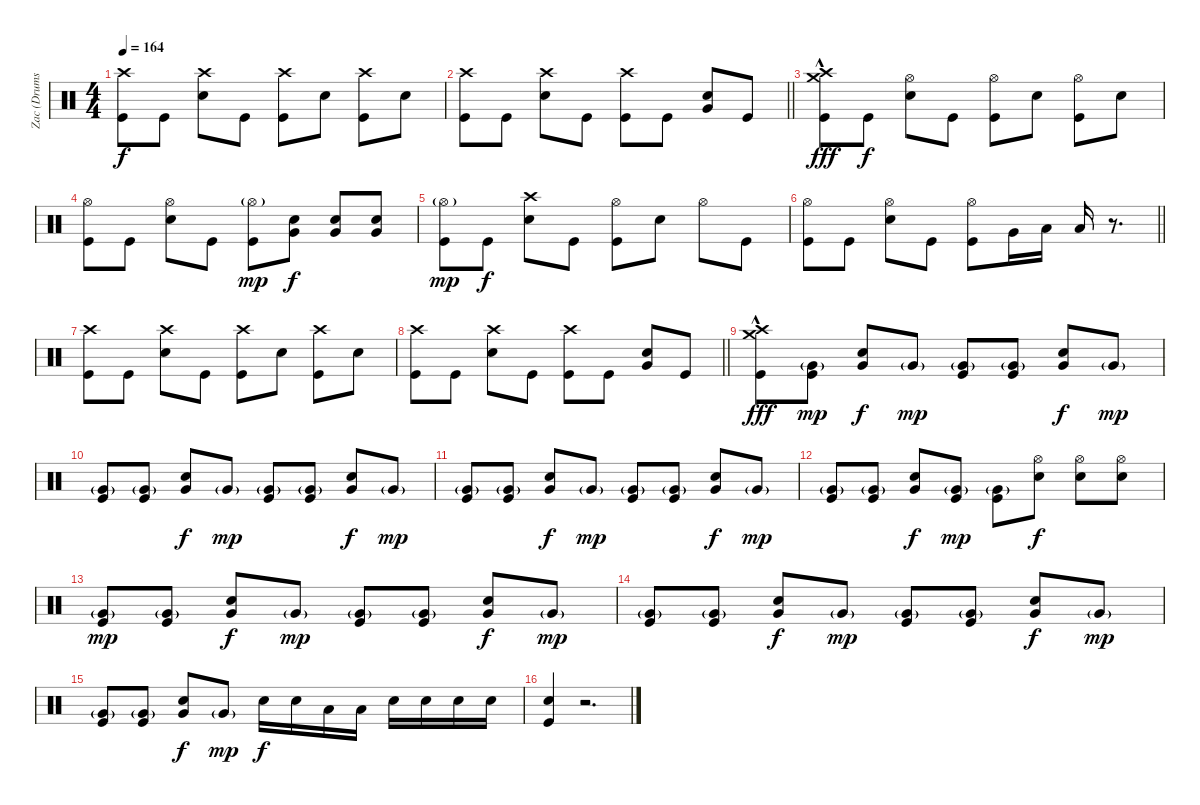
\track ("Zac (Drums)" "Zac (Drums") {instrument percussion}
\staff {score}
\articulation defaults
\ts (4 4)
\tempo 164
\clef neutral
\ks c
("Crash high (hit)" "Kick (hit)").8{dy f} "Kick (hit)".8 ("Crash high (hit)" "Electric Snare (hit)").8 "Kick (hit)".8 ("Crash high (hit)" "Kick (hit)").8 "Electric Snare (hit)".8 ("Crash high (hit)" "Kick (hit)").8 "Electric Snare (hit)".8 |
\barLineRight lightlight
("Crash high (hit)" "Kick (hit)").8 "Kick (hit)".8 ("Crash high (hit)" "Electric Snare (hit)").8 "Kick (hit)".8 ("Crash high (hit)" "Kick (hit)").8 "Kick (hit)".8 ("Electric Snare (hit)" "Very Low Tom (hit)").8 "Kick (hit)".8 |
("Crash high (hit)"{hac} "Crash medium (hit)" "Kick (hit)").8{dy fff} "Kick (hit)".8{dy f} ("Hi-Hat (open)" "Electric Snare (hit)").8 "Kick (hit)".8 ("Hi-Hat (open)" "Kick (hit)").8 "Electric Snare (hit)".8 ("Hi-Hat (open)" "Kick (hit)").8 "Electric Snare (hit)".8 |
("Hi-Hat (open)" "Kick (hit)").8 "Kick (hit)".8 ("Hi-Hat (open)" "Electric Snare (hit)").8 "Kick (hit)".8 ("Hi-Hat (open)"{g} "Kick (hit)").8{dy mp} ("Electric Snare (hit)" "Very Low Tom (hit)").8{dy f} ("Electric Snare (hit)" "Very Low Tom (hit)").8 ("Electric Snare (hit)" "Very Low Tom (hit)").8 |
("Hi-Hat (open)"{g} "Kick (hit)").8{dy mp} "Kick (hit)".8{dy f} ("Crash high (hit)" "Electric Snare (hit)").8 "Kick (hit)".8 ("Hi-Hat (open)" "Kick (hit)").8 "Electric Snare (hit)".8 "Hi-Hat (open)".8 "Kick (hit)".8 |
\barLineRight lightlight
("Hi-Hat (open)" "Kick (hit)").8 "Kick (hit)".8 ("Hi-Hat (open)" "Electric Snare (hit)").8 "Kick (hit)".8 ("Hi-Hat (open)" "Kick (hit)").8 "Very Low Tom (hit)".16 "Low Tom (hit)".16 "Low Floor Tom (hit)".16 r.8{d} |
("Crash high (hit)" "Kick (hit)").8 "Kick (hit)".8 ("Crash high (hit)" "Electric Snare (hit)").8 "Kick (hit)".8 ("Crash high (hit)" "Kick (hit)").8 "Electric Snare (hit)".8 ("Crash high (hit)" "Kick (hit)").8 "Electric Snare (hit)".8 |
\barLineRight lightlight
("Crash high (hit)" "Kick (hit)").8 "Kick (hit)".8 ("Crash high (hit)" "Electric Snare (hit)").8 "Kick (hit)".8 ("Crash high (hit)" "Kick (hit)").8 "Kick (hit)".8 ("Electric Snare (hit)" "Very Low Tom (hit)").8 "Kick (hit)".8 |
("Crash high (hit)"{hac} "Crash medium (hit)" "Kick (hit)").8{dy fff} ("Very Low Tom (hit)"{g} "Kick (hit)").8{dy mp} ("Electric Snare (hit)" "Very Low Tom (hit)").8{dy f} "Very Low Tom (hit)"{g}.8{dy mp} ("Very Low Tom (hit)"{g} "Kick (hit)").8 ("Very Low Tom (hit)"{g} "Kick (hit)").8 ("Electric Snare (hit)" "Very Low Tom (hit)").8{dy f} "Very Low Tom (hit)"{g}.8{dy mp} |
("Very Low Tom (hit)"{g} "Kick (hit)").8 ("Very Low Tom (hit)"{g} "Kick (hit)").8 ("Electric Snare (hit)" "Very Low Tom (hit)").8{dy f} "Very Low Tom (hit)"{g}.8{dy mp} ("Very Low Tom (hit)"{g} "Kick (hit)").8 ("Very Low Tom (hit)"{g} "Kick (hit)").8 ("Electric Snare (hit)" "Very Low Tom (hit)").8{dy f} "Very Low Tom (hit)"{g}.8{dy mp} |
("Very Low Tom (hit)"{g} "Kick (hit)").8 ("Very Low Tom (hit)"{g} "Kick (hit)").8 ("Electric Snare (hit)" "Very Low Tom (hit)").8{dy f} "Very Low Tom (hit)"{g}.8{dy mp} ("Very Low Tom (hit)"{g} "Kick (hit)").8 ("Very Low Tom (hit)"{g} "Kick (hit)").8 ("Electric Snare (hit)" "Very Low Tom (hit)").8{dy f} "Very Low Tom (hit)"{g}.8{dy mp} |
("Very Low Tom (hit)"{g} "Kick (hit)").8 ("Very Low Tom (hit)"{g} "Kick (hit)").8 ("Electric Snare (hit)" "Very Low Tom (hit)").8{dy f} ("Very Low Tom (hit)"{g} "Kick (hit)").8{dy mp} ("Very Low Tom (hit)"{g} "Kick (hit)").8 ("Hi-Hat (open)" "Electric Snare (hit)").8{dy f} ("Hi-Hat (open)" "Electric Snare (hit)").8 ("Hi-Hat (open)" "Electric Snare (hit)").8 |
("Very Low Tom (hit)"{g} "Kick (hit)").8{dy mp} ("Very Low Tom (hit)"{g} "Kick (hit)").8 ("Electric Snare (hit)" "Very Low Tom (hit)").8{dy f} "Very Low Tom (hit)"{g}.8{dy mp} ("Very Low Tom (hit)"{g} "Kick (hit)").8 ("Very Low Tom (hit)"{g} "Kick (hit)").8 ("Electric Snare (hit)" "Very Low Tom (hit)").8{dy f} "Very Low Tom (hit)"{g}.8{dy mp} |
("Very Low Tom (hit)"{g} "Kick (hit)").8 ("Very Low Tom (hit)"{g} "Kick (hit)").8 ("Electric Snare (hit)" "Very Low Tom (hit)").8{dy f} "Very Low Tom (hit)"{g}.8{dy mp} ("Very Low Tom (hit)"{g} "Kick (hit)").8 ("Very Low Tom (hit)"{g} "Kick (hit)").8 ("Electric Snare (hit)" "Very Low Tom (hit)").8{dy f} "Very Low Tom (hit)"{g}.8{dy mp} |
("Very Low Tom (hit)"{g} "Kick (hit)").8 ("Very Low Tom (hit)"{g} "Kick (hit)").8 ("Electric Snare (hit)" "Very Low Tom (hit)").8{dy f} "Very Low Tom (hit)"{g}.8{dy mp} "Electric Snare (hit)".16{dy f} "Electric Snare (hit)".16 "Low Tom (hit)".16 "Low Tom (hit)".16 "Electric Snare (hit)".16 "Electric Snare (hit)".16 "Electric Snare (hit)".16 "Electric Snare (hit)".16 |
("Electric Snare (hit)" "Kick (hit)").4 r.2{d}
